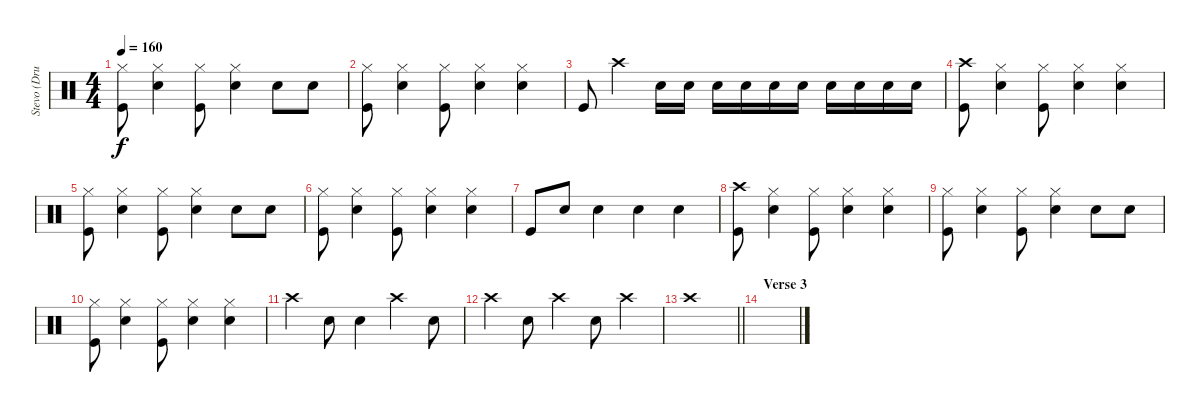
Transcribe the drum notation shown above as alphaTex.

\track ("Stevo (Drums)" "Stevo (Dru") {instrument percussion}
\staff {score}
\articulation defaults
\ts (4 4)
\tempo 160
\clef neutral
\ks c
("Hi-Hat (closed)" "Kick (hit)").8{dy f} ("Hi-Hat (closed)" "Electric Snare (hit)").4 ("Hi-Hat (closed)" "Kick (hit)").8 ("Hi-Hat (closed)" "Electric Snare (hit)").4 "Electric Snare (hit)".8 "Electric Snare (hit)".8 |
("Hi-Hat (closed)" "Kick (hit)").8 ("Hi-Hat (closed)" "Electric Snare (hit)").4 ("Hi-Hat (closed)" "Kick (hit)").8 ("Hi-Hat (closed)" "Electric Snare (hit)").4 ("Hi-Hat (closed)" "Electric Snare (hit)").4 |
"Kick (hit)".8 "Crash high (hit)".4 "Electric Snare (hit)".16 "Electric Snare (hit)".16 "Electric Snare (hit)".16 "Electric Snare (hit)".16 "Electric Snare (hit)".16 "Electric Snare (hit)".16 "Electric Snare (hit)".16 "Electric Snare (hit)".16 "Electric Snare (hit)".16 "Electric Snare (hit)".16 |
("Crash high (hit)" "Kick (hit)").8 ("Hi-Hat (closed)" "Electric Snare (hit)").4 ("Hi-Hat (closed)" "Kick (hit)").8 ("Hi-Hat (closed)" "Electric Snare (hit)").4 ("Hi-Hat (closed)" "Electric Snare (hit)").4 |
("Hi-Hat (closed)" "Kick (hit)").8 ("Hi-Hat (closed)" "Electric Snare (hit)").4 ("Hi-Hat (closed)" "Kick (hit)").8 ("Hi-Hat (closed)" "Electric Snare (hit)").4 "Electric Snare (hit)".8 "Electric Snare (hit)".8 |
("Hi-Hat (closed)" "Kick (hit)").8 ("Hi-Hat (closed)" "Electric Snare (hit)").4 ("Hi-Hat (closed)" "Kick (hit)").8 ("Hi-Hat (closed)" "Electric Snare (hit)").4 ("Hi-Hat (closed)" "Electric Snare (hit)").4 |
"Kick (hit)".8 "Electric Snare (hit)".8 "Electric Snare (hit)".4 "Electric Snare (hit)".4 "Electric Snare (hit)".4 |
("Crash high (hit)" "Kick (hit)").8 ("Hi-Hat (closed)" "Electric Snare (hit)").4 ("Hi-Hat (closed)" "Kick (hit)").8 ("Hi-Hat (closed)" "Electric Snare (hit)").4 ("Hi-Hat (closed)" "Electric Snare (hit)").4 |
("Hi-Hat (closed)" "Kick (hit)").8 ("Hi-Hat (closed)" "Electric Snare (hit)").4 ("Hi-Hat (closed)" "Kick (hit)").8 ("Hi-Hat (closed)" "Electric Snare (hit)").4 "Electric Snare (hit)".8 "Electric Snare (hit)".8 |
("Hi-Hat (closed)" "Kick (hit)").8 ("Hi-Hat (closed)" "Electric Snare (hit)").4 ("Hi-Hat (closed)" "Kick (hit)").8 ("Hi-Hat (closed)" "Electric Snare (hit)").4 ("Hi-Hat (closed)" "Electric Snare (hit)").4 |
"Crash high (hit)".4 "Electric Snare (hit)".8 "Electric Snare (hit)".4 "Crash high (hit)".4 "Electric Snare (hit)".8 |
"Crash high (hit)".4 "Electric Snare (hit)".8 "Crash high (hit)".4 "Electric Snare (hit)".8 "Crash high (hit)".4 |
\barLineRight lightlight "Crash high (hit)".1
|
\section ("" "Verse 3")
